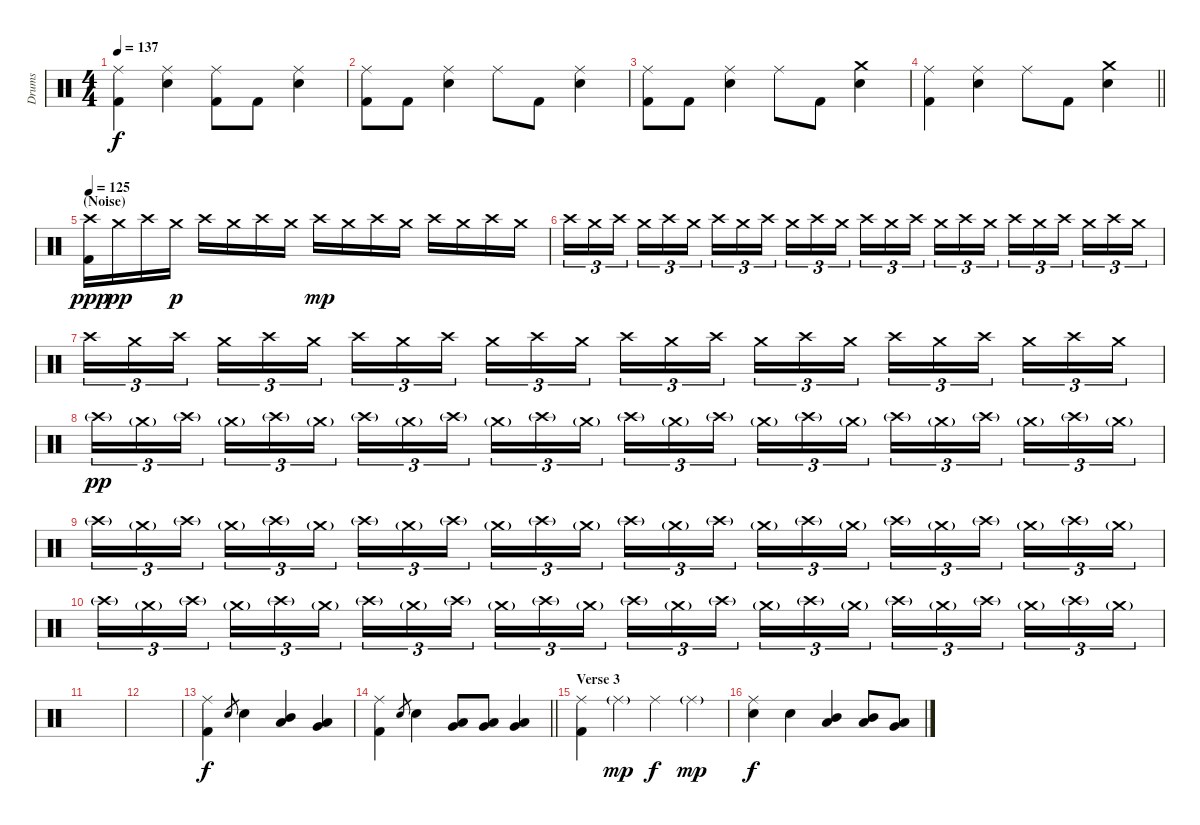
\track ("Drums" "Drums") {instrument percussion}
\staff {score}
\articulation defaults
\ts (4 4)
\tempo 137
\clef neutral
\ks c
("Ride (middle)" "Kick (hit) 2").4{dy f} ("Ride (middle)" "Electric Snare (hit)").4 ("Ride (middle)" "Kick (hit) 2").8 "Kick (hit) 2".8 ("Ride (middle)" "Electric Snare (hit)").4 |
("Ride (middle)" "Kick (hit) 2").8 "Kick (hit) 2".8 ("Ride (middle)" "Electric Snare (hit)").4 "Ride (middle)".8 "Kick (hit) 2".8 ("Ride (middle)" "Electric Snare (hit)").4 |
("Ride (middle)" "Kick (hit) 2").8 "Kick (hit) 2".8 ("Ride (middle)" "Electric Snare (hit)").4 "Ride (middle)".8 "Kick (hit) 2".8 ("Crash medium (hit)" "Electric Snare (hit)").4 |
\barLineRight lightlight
("Ride (middle)" "Kick (hit) 2").4 ("Ride (middle)" "Electric Snare (hit)").4 "Ride (middle)".8 "Kick (hit) 2".8 ("Crash medium (hit)" "Electric Snare (hit)").4 |
\section ("" "(Noise)")
\tempo 125
("Crash high (hit)" "Kick (hit) 2").16{dy ppp} "Crash medium (hit)".16{dy pp} "Crash high (hit)".16 "Crash medium (hit)".16{dy p} "Crash high (hit)".16 "Crash medium (hit)".16 "Crash high (hit)".16 "Crash medium (hit)".16 "Crash high (hit)".16{dy mp} "Crash medium (hit)".16 "Crash high (hit)".16 "Crash medium (hit)".16 "Crash high (hit)".16 "Crash medium (hit)".16 "Crash high (hit)".16 "Crash medium (hit)".16 |
"Crash high (hit)".16{tu (3 2)} "Crash medium (hit)".16{tu (3 2)} "Crash high (hit)".16{tu (3 2) beam splitsecondary} "Crash medium (hit)".16{tu (3 2)} "Crash high (hit)".16{tu (3 2)} "Crash medium (hit)".16{tu (3 2)} "Crash high (hit)".16{tu (3 2)} "Crash medium (hit)".16{tu (3 2)} "Crash high (hit)".16{tu (3 2) beam splitsecondary} "Crash medium (hit)".16{tu (3 2)} "Crash high (hit)".16{tu (3 2)} "Crash medium (hit)".16{tu (3 2)} "Crash high (hit)".16{tu (3 2)} "Crash medium (hit)".16{tu (3 2)} "Crash high (hit)".16{tu (3 2) beam splitsecondary} "Crash medium (hit)".16{tu (3 2)} "Crash high (hit)".16{tu (3 2)} "Crash medium (hit)".16{tu (3 2)} "Crash high (hit)".16{tu (3 2)} "Crash medium (hit)".16{tu (3 2)} "Crash high (hit)".16{tu (3 2) beam splitsecondary} "Crash medium (hit)".16{tu (3 2)} "Crash high (hit)".16{tu (3 2)} "Crash medium (hit)".16{tu (3 2)} |
"Crash high (hit)".16{tu (3 2)} "Crash medium (hit)".16{tu (3 2)} "Crash high (hit)".16{tu (3 2) beam splitsecondary} "Crash medium (hit)".16{tu (3 2)} "Crash high (hit)".16{tu (3 2)} "Crash medium (hit)".16{tu (3 2)} "Crash high (hit)".16{tu (3 2)} "Crash medium (hit)".16{tu (3 2)} "Crash high (hit)".16{tu (3 2) beam splitsecondary} "Crash medium (hit)".16{tu (3 2)} "Crash high (hit)".16{tu (3 2)} "Crash medium (hit)".16{tu (3 2)} "Crash high (hit)".16{tu (3 2)} "Crash medium (hit)".16{tu (3 2)} "Crash high (hit)".16{tu (3 2) beam splitsecondary} "Crash medium (hit)".16{tu (3 2)} "Crash high (hit)".16{tu (3 2)} "Crash medium (hit)".16{tu (3 2)} "Crash high (hit)".16{tu (3 2)} "Crash medium (hit)".16{tu (3 2)} "Crash high (hit)".16{tu (3 2) beam splitsecondary} "Crash medium (hit)".16{tu (3 2)} "Crash high (hit)".16{tu (3 2)} "Crash medium (hit)".16{tu (3 2)} |
"Crash high (hit)"{g}.16{tu (3 2) dy pp} "Crash medium (hit)"{g}.16{tu (3 2)} "Crash high (hit)"{g}.16{tu (3 2) beam splitsecondary} "Crash medium (hit)"{g}.16{tu (3 2)} "Crash high (hit)"{g}.16{tu (3 2)} "Crash medium (hit)"{g}.16{tu (3 2)} "Crash high (hit)"{g}.16{tu (3 2)} "Crash medium (hit)"{g}.16{tu (3 2)} "Crash high (hit)"{g}.16{tu (3 2) beam splitsecondary} "Crash medium (hit)"{g}.16{tu (3 2)} "Crash high (hit)"{g}.16{tu (3 2)} "Crash medium (hit)"{g}.16{tu (3 2)} "Crash high (hit)"{g}.16{tu (3 2)} "Crash medium (hit)"{g}.16{tu (3 2)} "Crash high (hit)"{g}.16{tu (3 2) beam splitsecondary} "Crash medium (hit)"{g}.16{tu (3 2)} "Crash high (hit)"{g}.16{tu (3 2)} "Crash medium (hit)"{g}.16{tu (3 2)} "Crash high (hit)"{g}.16{tu (3 2)} "Crash medium (hit)"{g}.16{tu (3 2)} "Crash high (hit)"{g}.16{tu (3 2) beam splitsecondary} "Crash medium (hit)"{g}.16{tu (3 2)} "Crash high (hit)"{g}.16{tu (3 2)} "Crash medium (hit)"{g}.16{tu (3 2)} |
"Crash high (hit)"{g}.16{tu (3 2)} "Crash medium (hit)"{g}.16{tu (3 2)} "Crash high (hit)"{g}.16{tu (3 2) beam splitsecondary} "Crash medium (hit)"{g}.16{tu (3 2)} "Crash high (hit)"{g}.16{tu (3 2)} "Crash medium (hit)"{g}.16{tu (3 2)} "Crash high (hit)"{g}.16{tu (3 2)} "Crash medium (hit)"{g}.16{tu (3 2)} "Crash high (hit)"{g}.16{tu (3 2) beam splitsecondary} "Crash medium (hit)"{g}.16{tu (3 2)} "Crash high (hit)"{g}.16{tu (3 2)} "Crash medium (hit)"{g}.16{tu (3 2)} "Crash high (hit)"{g}.16{tu (3 2)} "Crash medium (hit)"{g}.16{tu (3 2)} "Crash high (hit)"{g}.16{tu (3 2) beam splitsecondary} "Crash medium (hit)"{g}.16{tu (3 2)} "Crash high (hit)"{g}.16{tu (3 2)} "Crash medium (hit)"{g}.16{tu (3 2)} "Crash high (hit)"{g}.16{tu (3 2)} "Crash medium (hit)"{g}.16{tu (3 2)} "Crash high (hit)"{g}.16{tu (3 2) beam splitsecondary} "Crash medium (hit)"{g}.16{tu (3 2)} "Crash high (hit)"{g}.16{tu (3 2)} "Crash medium (hit)"{g}.16{tu (3 2)} |
"Crash high (hit)"{g}.16{tu (3 2)} "Crash medium (hit)"{g}.16{tu (3 2)} "Crash high (hit)"{g}.16{tu (3 2) beam splitsecondary} "Crash medium (hit)"{g}.16{tu (3 2)} "Crash high (hit)"{g}.16{tu (3 2)} "Crash medium (hit)"{g}.16{tu (3 2)} "Crash high (hit)"{g}.16{tu (3 2)} "Crash medium (hit)"{g}.16{tu (3 2)} "Crash high (hit)"{g}.16{tu (3 2) beam splitsecondary} "Crash medium (hit)"{g}.16{tu (3 2)} "Crash high (hit)"{g}.16{tu (3 2)} "Crash medium (hit)"{g}.16{tu (3 2)} "Crash high (hit)"{g}.16{tu (3 2)} "Crash medium (hit)"{g}.16{tu (3 2)} "Crash high (hit)"{g}.16{tu (3 2) beam splitsecondary} "Crash medium (hit)"{g}.16{tu (3 2)} "Crash high (hit)"{g}.16{tu (3 2)} "Crash medium (hit)"{g}.16{tu (3 2)} "Crash high (hit)"{g}.16{tu (3 2)} "Crash medium (hit)"{g}.16{tu (3 2)} "Crash high (hit)"{g}.16{tu (3 2) beam splitsecondary} "Crash medium (hit)"{g}.16{tu (3 2)} "Crash high (hit)"{g}.16{tu (3 2)} "Crash medium (hit)"{g}.16{tu (3 2)} |
|
|
("Ride (middle)" "Kick (hit) 2").4{dy f} "Electric Snare (hit)".8{gr} "Electric Snare (hit)".4 ("Mid Tom (hit)" "Low Tom (hit)").4 ("Low Tom (hit)" "Very Low Tom (hit)").4 |
\barLineRight lightlight
("Ride (middle)" "Kick (hit) 2").4 "Electric Snare (hit)".8{gr} "Electric Snare (hit)".4 ("Low Tom (hit)" "Very Low Tom (hit)").8 ("Low Tom (hit)" "Very Low Tom (hit)").8 ("Very Low Tom (hit)" "Low Floor Tom (hit)").4 |
\section ("" "Verse 3")
("Ride (middle)" "Kick (hit) 2").4 "Ride (middle)"{g}.4{dy mp} "Ride (middle)".4{dy f} "Ride (middle)"{g}.4{dy mp} |
("Ride (middle)" "Electric Snare (hit)").4{dy f} "Electric Snare (hit)".4 ("Mid Tom (hit)" "Low Tom (hit)").4 ("Mid Tom (hit)" "Low Tom (hit)").8 ("Low Tom (hit)" "Very Low Tom (hit)").8
